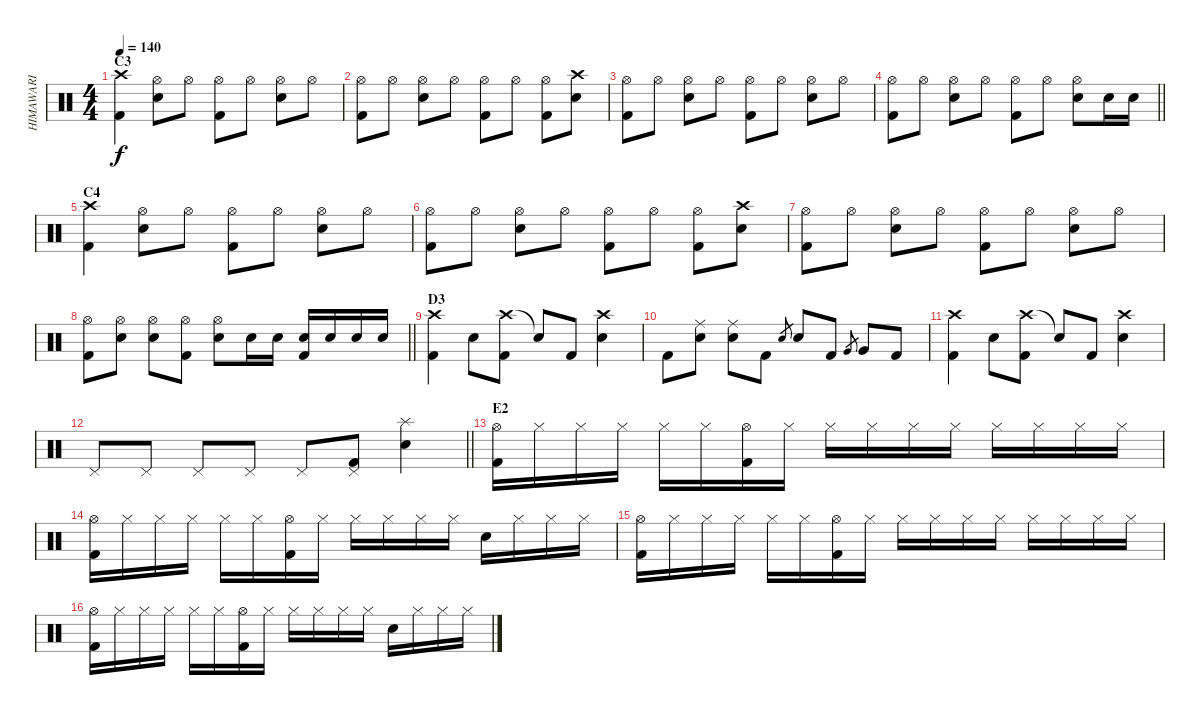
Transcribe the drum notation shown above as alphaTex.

\track ("HIMAWARI" "HIMAWARI") {instrument percussion}
\staff {score}
\articulation defaults
\ts (4 4)
\section ("" "C3")
\tempo 140
\clef neutral
\ks c
("Crash high (hit)" "Kick (hit) 2").4{dy f} ("Hi-Hat (open)" "Snare (hit) 2").8 "Hi-Hat (open)".8 ("Hi-Hat (open)" "Kick (hit) 2").8 "Hi-Hat (open)".8 ("Hi-Hat (open)" "Snare (hit) 2").8 "Hi-Hat (open)".8 |
("Hi-Hat (open)" "Kick (hit) 2").8 "Hi-Hat (open)".8 ("Hi-Hat (open)" "Snare (hit) 2").8 "Hi-Hat (open)".8 ("Hi-Hat (open)" "Kick (hit) 2").8 "Hi-Hat (open)".8 ("Hi-Hat (open)" "Kick (hit) 2").8 ("Crash high (hit)" "Snare (hit) 2").8 |
("Hi-Hat (open)" "Kick (hit) 2").8 "Hi-Hat (open)".8 ("Hi-Hat (open)" "Snare (hit) 2").8 "Hi-Hat (open)".8 ("Hi-Hat (open)" "Kick (hit) 2").8 "Hi-Hat (open)".8 ("Hi-Hat (open)" "Snare (hit) 2").8 "Hi-Hat (open)".8 |
\barLineRight lightlight
("Hi-Hat (open)" "Kick (hit) 2").8 "Hi-Hat (open)".8 ("Hi-Hat (open)" "Snare (hit) 2").8 "Hi-Hat (open)".8 ("Hi-Hat (open)" "Kick (hit) 2").8 "Hi-Hat (open)".8 ("Hi-Hat (open)" "Snare (hit) 2").8 "Snare (hit) 2".16 "Snare (hit) 2".16 |
\section ("" "C4")
("Crash high (hit)" "Kick (hit) 2").4 ("Hi-Hat (open)" "Snare (hit) 2").8 "Hi-Hat (open)".8 ("Hi-Hat (open)" "Kick (hit) 2").8 "Hi-Hat (open)".8 ("Hi-Hat (open)" "Snare (hit) 2").8 "Hi-Hat (open)".8 |
("Hi-Hat (open)" "Kick (hit) 2").8 "Hi-Hat (open)".8 ("Hi-Hat (open)" "Snare (hit) 2").8 "Hi-Hat (open)".8 ("Hi-Hat (open)" "Kick (hit) 2").8 "Hi-Hat (open)".8 ("Hi-Hat (open)" "Kick (hit) 2").8 ("Crash high (hit)" "Snare (hit) 2").8 |
("Hi-Hat (open)" "Kick (hit) 2").8 "Hi-Hat (open)".8 ("Hi-Hat (open)" "Snare (hit) 2").8 "Hi-Hat (open)".8 ("Hi-Hat (open)" "Kick (hit) 2").8 "Hi-Hat (open)".8 ("Hi-Hat (open)" "Snare (hit) 2").8 "Hi-Hat (open)".8 |
\barLineRight lightlight
("Hi-Hat (open)" "Kick (hit) 2").8 ("Hi-Hat (open)" "Snare (hit) 2").8 ("Hi-Hat (open)" "Snare (hit) 2").8 ("Hi-Hat (open)" "Kick (hit) 2").8 ("Hi-Hat (open)" "Snare (hit) 2").8 "Snare (hit) 2".16 "Snare (hit) 2".16 ("Snare (hit) 2" "Kick (hit) 2").16 "Snare (hit) 2".16 "Snare (hit) 2".16 "Snare (hit) 2".16 |
\section ("" "D3")
("Crash high (hit)" "Kick (hit) 2").4 "Snare (hit) 2".8 ("Crash high (hit)" "Kick (hit) 2").8 "Snare (hit)"{t}.8 "Kick (hit) 2".8 ("Crash high (hit)" "Snare (hit) 2").4 |
"Kick (hit) 2".8 ("Ride (middle)" "Snare (hit) 2").8 ("Ride (middle)" "Snare (hit) 2").8 "Kick (hit) 2".8 "Snare (hit) 2".8{gr} "Snare (hit) 2".8 "Kick (hit) 2".8 "Very Low Tom (hit)".8{gr} "Very Low Tom (hit)".8 "Kick (hit) 2".8 |
("Crash high (hit)" "Kick (hit) 2").4 "Snare (hit) 2".8 ("Crash high (hit)" "Kick (hit) 2").8 "Snare (hit)"{t}.8 "Kick (hit) 2".8 ("Crash high (hit)" "Snare (hit) 2").4 |
\barLineRight lightlight "Pedal Hi-Hat (hit)".8 "Pedal Hi-Hat (hit)".8 "Pedal Hi-Hat (hit)".8 "Pedal Hi-Hat (hit)".8 "Pedal Hi-Hat (hit)".8
("Pedal Hi-Hat (hit)" "Kick (hit) 2").8 ("Splash (hit)" "Snare (hit) 2").4 |
\section ("" "E2")
("Hi-Hat (open)" "Kick (hit) 2").16 "Hi-Hat (closed)".16 "Hi-Hat (closed)".16 "Hi-Hat (closed)".16 "Hi-Hat (closed)".16 "Hi-Hat (closed)".16 ("Hi-Hat (open)" "Kick (hit) 2").16 "Hi-Hat (closed)".16 "Hi-Hat (closed)".16 "Hi-Hat (closed)".16 "Hi-Hat (closed)".16 "Hi-Hat (closed)".16 "Hi-Hat (closed)".16 "Hi-Hat (closed)".16 "Hi-Hat (closed)".16 "Hi-Hat (closed)".16 |
("Hi-Hat (open)" "Kick (hit) 2").16 "Hi-Hat (closed)".16 "Hi-Hat (closed)".16 "Hi-Hat (closed)".16 "Hi-Hat (closed)".16 "Hi-Hat (closed)".16 ("Hi-Hat (open)" "Kick (hit) 2").16 "Hi-Hat (closed)".16 "Hi-Hat (closed)".16 "Hi-Hat (closed)".16 "Hi-Hat (closed)".16 "Hi-Hat (closed)".16 "Snare (hit) 2".16 "Hi-Hat (closed)".16 "Hi-Hat (closed)".16 "Hi-Hat (closed)".16 |
("Hi-Hat (open)" "Kick (hit) 2").16 "Hi-Hat (closed)".16 "Hi-Hat (closed)".16 "Hi-Hat (closed)".16 "Hi-Hat (closed)".16 "Hi-Hat (closed)".16 ("Hi-Hat (open)" "Kick (hit) 2").16 "Hi-Hat (closed)".16 "Hi-Hat (closed)".16 "Hi-Hat (closed)".16 "Hi-Hat (closed)".16 "Hi-Hat (closed)".16 "Hi-Hat (closed)".16 "Hi-Hat (closed)".16 "Hi-Hat (closed)".16 "Hi-Hat (closed)".16 |
("Hi-Hat (open)" "Kick (hit) 2").16 "Hi-Hat (closed)".16 "Hi-Hat (closed)".16 "Hi-Hat (closed)".16 "Hi-Hat (closed)".16 "Hi-Hat (closed)".16 ("Hi-Hat (open)" "Kick (hit) 2").16 "Hi-Hat (closed)".16 "Hi-Hat (closed)".16 "Hi-Hat (closed)".16 "Hi-Hat (closed)".16 "Hi-Hat (closed)".16 "Snare (hit) 2".16 "Hi-Hat (closed)".16 "Hi-Hat (closed)".16 "Hi-Hat (closed)".16
